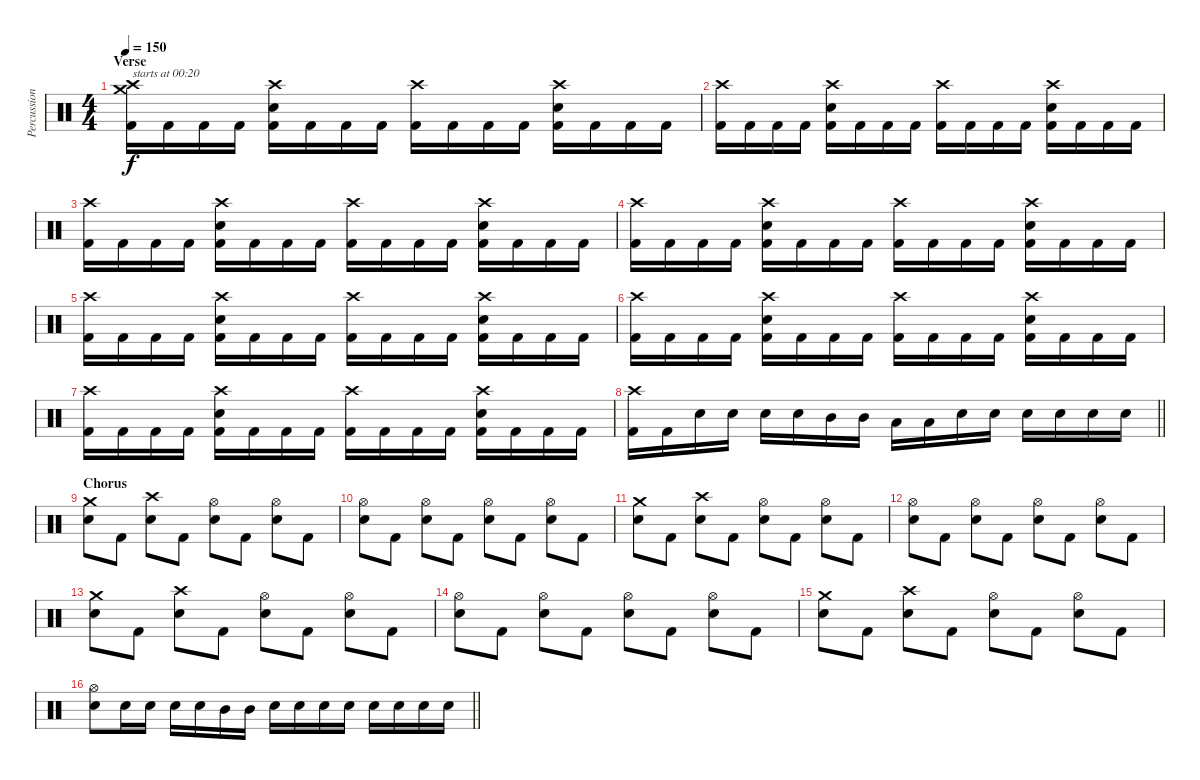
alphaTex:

\track ("Percussion" "Percussion") {instrument percussion}
\staff {score}
\articulation defaults
\ts (4 4)
\section ("" "Verse ")
\tempo 150
\clef neutral
\ks c
("Crash high (hit)" "Crash medium (hit)" "Kick (hit) 2").16{txt "starts at 00:20" dy f} "Kick (hit) 2".16 "Kick (hit) 2".16 "Kick (hit) 2".16 ("Crash high (hit)" "Electric Snare (hit)" "Kick (hit) 2").16 "Kick (hit) 2".16 "Kick (hit) 2".16 "Kick (hit) 2".16 ("Crash high (hit)" "Kick (hit) 2").16 "Kick (hit) 2".16 "Kick (hit) 2".16 "Kick (hit) 2".16 ("Crash high (hit)" "Electric Snare (hit)" "Kick (hit) 2").16 "Kick (hit) 2".16 "Kick (hit) 2".16 "Kick (hit) 2".16 |
("Crash high (hit)" "Kick (hit) 2").16 "Kick (hit) 2".16 "Kick (hit) 2".16 "Kick (hit) 2".16 ("Crash high (hit)" "Electric Snare (hit)" "Kick (hit) 2").16 "Kick (hit) 2".16 "Kick (hit) 2".16 "Kick (hit) 2".16 ("Crash high (hit)" "Kick (hit) 2").16 "Kick (hit) 2".16 "Kick (hit) 2".16 "Kick (hit) 2".16 ("Crash high (hit)" "Electric Snare (hit)" "Kick (hit) 2").16 "Kick (hit) 2".16 "Kick (hit) 2".16 "Kick (hit) 2".16 |
("Crash high (hit)" "Kick (hit) 2").16 "Kick (hit) 2".16 "Kick (hit) 2".16 "Kick (hit) 2".16 ("Crash high (hit)" "Electric Snare (hit)" "Kick (hit) 2").16 "Kick (hit) 2".16 "Kick (hit) 2".16 "Kick (hit) 2".16 ("Crash high (hit)" "Kick (hit) 2").16 "Kick (hit) 2".16 "Kick (hit) 2".16 "Kick (hit) 2".16 ("Crash high (hit)" "Electric Snare (hit)" "Kick (hit) 2").16 "Kick (hit) 2".16 "Kick (hit) 2".16 "Kick (hit) 2".16 |
("Crash high (hit)" "Kick (hit) 2").16 "Kick (hit) 2".16 "Kick (hit) 2".16 "Kick (hit) 2".16 ("Crash high (hit)" "Electric Snare (hit)" "Kick (hit) 2").16 "Kick (hit) 2".16 "Kick (hit) 2".16 "Kick (hit) 2".16 ("Crash high (hit)" "Kick (hit) 2").16 "Kick (hit) 2".16 "Kick (hit) 2".16 "Kick (hit) 2".16 ("Crash high (hit)" "Electric Snare (hit)" "Kick (hit) 2").16 "Kick (hit) 2".16 "Kick (hit) 2".16 "Kick (hit) 2".16 |
("Crash high (hit)" "Kick (hit) 2").16 "Kick (hit) 2".16 "Kick (hit) 2".16 "Kick (hit) 2".16 ("Crash high (hit)" "Electric Snare (hit)" "Kick (hit) 2").16 "Kick (hit) 2".16 "Kick (hit) 2".16 "Kick (hit) 2".16 ("Crash high (hit)" "Kick (hit) 2").16 "Kick (hit) 2".16 "Kick (hit) 2".16 "Kick (hit) 2".16 ("Crash high (hit)" "Electric Snare (hit)" "Kick (hit) 2").16 "Kick (hit) 2".16 "Kick (hit) 2".16 "Kick (hit) 2".16 |
("Crash high (hit)" "Kick (hit) 2").16 "Kick (hit) 2".16 "Kick (hit) 2".16 "Kick (hit) 2".16 ("Crash high (hit)" "Electric Snare (hit)" "Kick (hit) 2").16 "Kick (hit) 2".16 "Kick (hit) 2".16 "Kick (hit) 2".16 ("Crash high (hit)" "Kick (hit) 2").16 "Kick (hit) 2".16 "Kick (hit) 2".16 "Kick (hit) 2".16 ("Crash high (hit)" "Electric Snare (hit)" "Kick (hit) 2").16 "Kick (hit) 2".16 "Kick (hit) 2".16 "Kick (hit) 2".16 |
("Crash high (hit)" "Kick (hit) 2").16 "Kick (hit) 2".16 "Kick (hit) 2".16 "Kick (hit) 2".16 ("Crash high (hit)" "Electric Snare (hit)" "Kick (hit) 2").16 "Kick (hit) 2".16 "Kick (hit) 2".16 "Kick (hit) 2".16 ("Crash high (hit)" "Kick (hit) 2").16 "Kick (hit) 2".16 "Kick (hit) 2".16 "Kick (hit) 2".16 ("Crash high (hit)" "Electric Snare (hit)" "Kick (hit) 2").16 "Kick (hit) 2".16 "Kick (hit) 2".16 "Kick (hit) 2".16 |
\barLineRight lightlight
("Crash high (hit)" "Kick (hit) 2").16 "Kick (hit) 2".16 "Electric Snare (hit)".16 "Electric Snare (hit)".16 "Electric Snare (hit)".16 "Electric Snare (hit)".16 "Mid Tom (hit)".16 "Mid Tom (hit)".16 "Low Tom (hit)".16 "Low Tom (hit)".16 "Electric Snare (hit)".16 "Electric Snare (hit)".16 "Electric Snare (hit)".16 "Electric Snare (hit)".16 "Electric Snare (hit)".16 "Electric Snare (hit)".16 |
\section ("" "Chorus")
("Crash medium (hit)" "Electric Snare (hit)").8 "Kick (hit) 2".8 ("Crash high (hit)" "Electric Snare (hit)").8 "Kick (hit) 2".8 ("Hi-Hat (open)" "Electric Snare (hit)").8 "Kick (hit) 2".8 ("Hi-Hat (open)" "Electric Snare (hit)").8 "Kick (hit) 2".8 |
("Hi-Hat (open)" "Electric Snare (hit)").8 "Kick (hit) 2".8 ("Hi-Hat (open)" "Electric Snare (hit)").8 "Kick (hit) 2".8 ("Hi-Hat (open)" "Electric Snare (hit)").8 "Kick (hit) 2".8 ("Hi-Hat (open)" "Electric Snare (hit)").8 "Kick (hit) 2".8 |
("Crash medium (hit)" "Electric Snare (hit)").8 "Kick (hit) 2".8 ("Crash high (hit)" "Electric Snare (hit)").8 "Kick (hit) 2".8 ("Hi-Hat (open)" "Electric Snare (hit)").8 "Kick (hit) 2".8 ("Hi-Hat (open)" "Electric Snare (hit)").8 "Kick (hit) 2".8 |
("Hi-Hat (open)" "Electric Snare (hit)").8 "Kick (hit) 2".8 ("Hi-Hat (open)" "Electric Snare (hit)").8 "Kick (hit) 2".8 ("Hi-Hat (open)" "Electric Snare (hit)").8 "Kick (hit) 2".8 ("Hi-Hat (open)" "Electric Snare (hit)").8 "Kick (hit) 2".8 |
("Crash medium (hit)" "Electric Snare (hit)").8 "Kick (hit) 2".8 ("Crash high (hit)" "Electric Snare (hit)").8 "Kick (hit) 2".8 ("Hi-Hat (open)" "Electric Snare (hit)").8 "Kick (hit) 2".8 ("Hi-Hat (open)" "Electric Snare (hit)").8 "Kick (hit) 2".8 |
("Hi-Hat (open)" "Electric Snare (hit)").8 "Kick (hit) 2".8 ("Hi-Hat (open)" "Electric Snare (hit)").8 "Kick (hit) 2".8 ("Hi-Hat (open)" "Electric Snare (hit)").8 "Kick (hit) 2".8 ("Hi-Hat (open)" "Electric Snare (hit)").8 "Kick (hit) 2".8 |
("Crash medium (hit)" "Electric Snare (hit)").8 "Kick (hit) 2".8 ("Crash high (hit)" "Electric Snare (hit)").8 "Kick (hit) 2".8 ("Hi-Hat (open)" "Electric Snare (hit)").8 "Kick (hit) 2".8 ("Hi-Hat (open)" "Electric Snare (hit)").8 "Kick (hit) 2".8 |
\barLineRight lightlight
("Hi-Hat (open)" "Electric Snare (hit)").8 "Electric Snare (hit)".16 "Electric Snare (hit)".16 "Electric Snare (hit)".16 "Electric Snare (hit)".16 "Mid Tom (hit)".16 "Mid Tom (hit)".16 "Electric Snare (hit)".16 "Electric Snare (hit)".16 "Electric Snare (hit)".16 "Electric Snare (hit)".16 "Electric Snare (hit)".16 "Electric Snare (hit)".16 "Electric Snare (hit)".16 "Electric Snare (hit)".16
